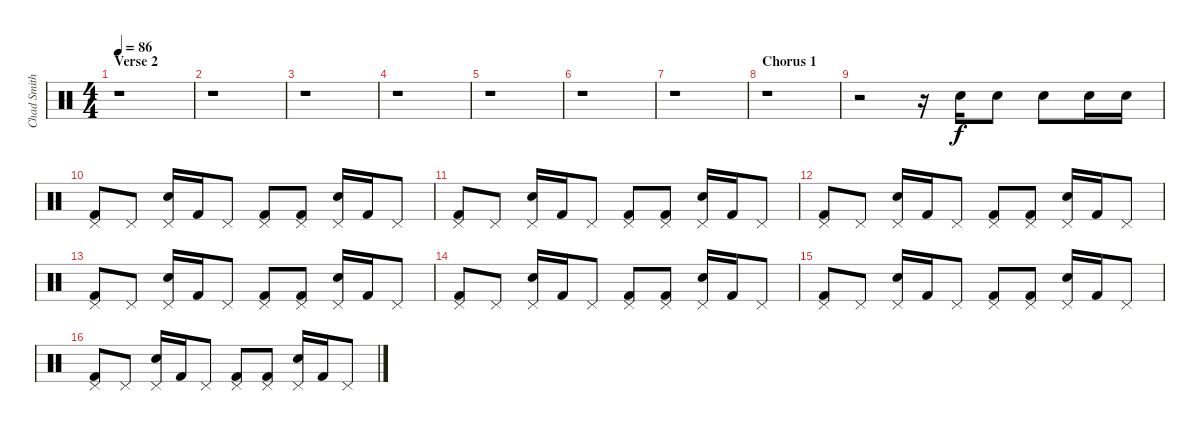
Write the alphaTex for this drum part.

\track ("Chad Smith (Percussions)" "Chad Smith") {instrument percussion}
\staff {score}
\articulation defaults
\ts (4 4)
\section ("" "Verse 2")
\tempo 86
\clef neutral
\ks c
r.1{dy f} |
r.1 |
r.1 |
r.1 |
r.1 |
r.1 |
r.1 |
\section ("" "Chorus 1")
r.1 |
r.2 r.16 "Electric Snare (hit)".16 "Electric Snare (hit)".8 "Electric Snare (hit)".8 "Electric Snare (hit)".16 "Electric Snare (hit)".16 |
("Pedal Hi-Hat (hit)" "Kick (hit) 2").8 "Pedal Hi-Hat (hit)".8 ("Pedal Hi-Hat (hit)" "Electric Snare (hit)").16 "Kick (hit) 2".16 "Pedal Hi-Hat (hit)".8 ("Pedal Hi-Hat (hit)" "Kick (hit) 2").8 ("Pedal Hi-Hat (hit)" "Kick (hit) 2").8 ("Pedal Hi-Hat (hit)" "Electric Snare (hit)").16 "Kick (hit) 2".16 "Pedal Hi-Hat (hit)".8 |
("Pedal Hi-Hat (hit)" "Kick (hit) 2").8 "Pedal Hi-Hat (hit)".8 ("Pedal Hi-Hat (hit)" "Electric Snare (hit)").16 "Kick (hit) 2".16 "Pedal Hi-Hat (hit)".8 ("Pedal Hi-Hat (hit)" "Kick (hit) 2").8 ("Pedal Hi-Hat (hit)" "Kick (hit) 2").8 ("Pedal Hi-Hat (hit)" "Electric Snare (hit)").16 "Kick (hit) 2".16 "Pedal Hi-Hat (hit)".8 |
("Pedal Hi-Hat (hit)" "Kick (hit) 2").8 "Pedal Hi-Hat (hit)".8 ("Pedal Hi-Hat (hit)" "Electric Snare (hit)").16 "Kick (hit) 2".16 "Pedal Hi-Hat (hit)".8 ("Pedal Hi-Hat (hit)" "Kick (hit) 2").8 ("Pedal Hi-Hat (hit)" "Kick (hit) 2").8 ("Pedal Hi-Hat (hit)" "Electric Snare (hit)").16 "Kick (hit) 2".16 "Pedal Hi-Hat (hit)".8 |
("Pedal Hi-Hat (hit)" "Kick (hit) 2").8 "Pedal Hi-Hat (hit)".8 ("Pedal Hi-Hat (hit)" "Electric Snare (hit)").16 "Kick (hit) 2".16 "Pedal Hi-Hat (hit)".8 ("Pedal Hi-Hat (hit)" "Kick (hit) 2").8 ("Pedal Hi-Hat (hit)" "Kick (hit) 2").8 ("Pedal Hi-Hat (hit)" "Electric Snare (hit)").16 "Kick (hit) 2".16 "Pedal Hi-Hat (hit)".8 |
("Pedal Hi-Hat (hit)" "Kick (hit) 2").8 "Pedal Hi-Hat (hit)".8 ("Pedal Hi-Hat (hit)" "Electric Snare (hit)").16 "Kick (hit) 2".16 "Pedal Hi-Hat (hit)".8 ("Pedal Hi-Hat (hit)" "Kick (hit) 2").8 ("Pedal Hi-Hat (hit)" "Kick (hit) 2").8 ("Pedal Hi-Hat (hit)" "Electric Snare (hit)").16 "Kick (hit) 2".16 "Pedal Hi-Hat (hit)".8 |
("Pedal Hi-Hat (hit)" "Kick (hit) 2").8 "Pedal Hi-Hat (hit)".8 ("Pedal Hi-Hat (hit)" "Electric Snare (hit)").16 "Kick (hit) 2".16 "Pedal Hi-Hat (hit)".8 ("Pedal Hi-Hat (hit)" "Kick (hit) 2").8 ("Pedal Hi-Hat (hit)" "Kick (hit) 2").8 ("Pedal Hi-Hat (hit)" "Electric Snare (hit)").16 "Kick (hit) 2".16 "Pedal Hi-Hat (hit)".8 |
("Pedal Hi-Hat (hit)" "Kick (hit) 2").8 "Pedal Hi-Hat (hit)".8 ("Pedal Hi-Hat (hit)" "Electric Snare (hit)").16 "Kick (hit) 2".16 "Pedal Hi-Hat (hit)".8 ("Pedal Hi-Hat (hit)" "Kick (hit) 2").8 ("Pedal Hi-Hat (hit)" "Kick (hit) 2").8 ("Pedal Hi-Hat (hit)" "Electric Snare (hit)").16 "Kick (hit) 2".16 "Pedal Hi-Hat (hit)".8
